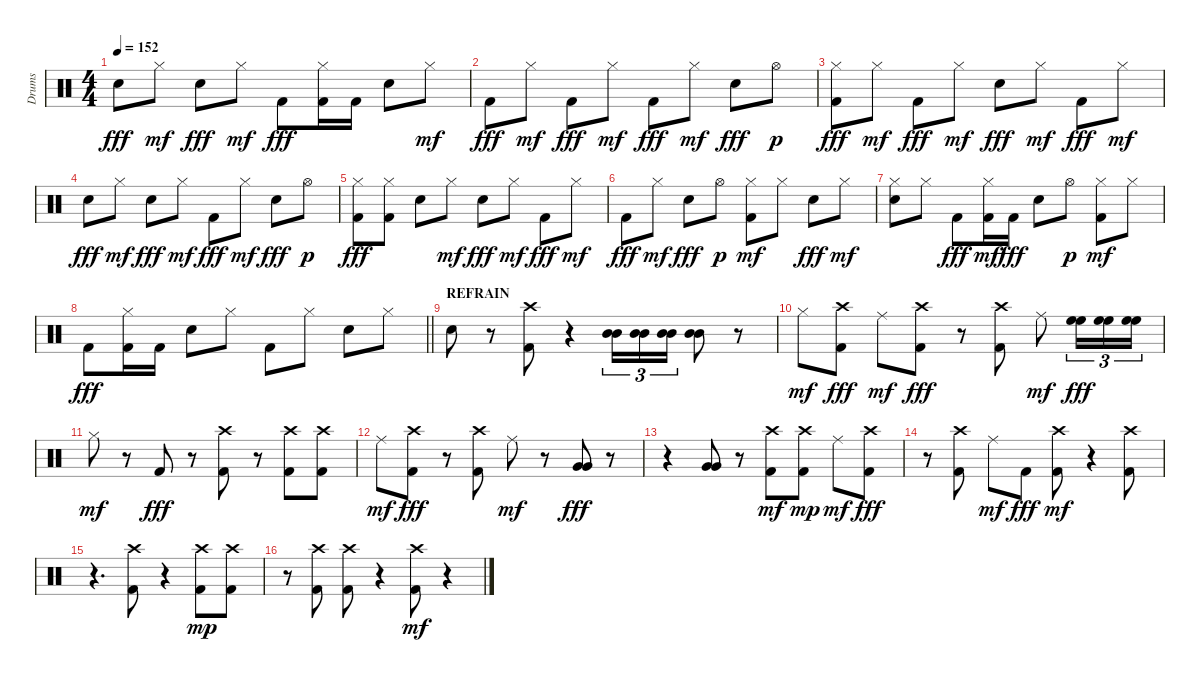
\track ("Drums" "Drums") {instrument percussion}
\staff {score}
\articulation defaults
\ts (4 4)
\tempo 152
\clef neutral
\ks c "Electric Snare (hit)".8{dy fff} "Hi-Hat (closed)".8{dy mf} "Electric Snare (hit)".8{dy fff} "Hi-Hat (closed)".8{dy mf} "Kick (hit) 2".8{dy fff}
("Hi-Hat (closed)" "Kick (hit) 2").16 "Kick (hit) 2".16 "Electric Snare (hit)".8 "Hi-Hat (closed)".8{dy mf} |
"Kick (hit) 2".8{dy fff} "Hi-Hat (closed)".8{dy mf} "Kick (hit) 2".8{dy fff} "Hi-Hat (closed)".8{dy mf} "Kick (hit) 2".8{dy fff} "Hi-Hat (closed)".8{dy mf} "Electric Snare (hit)".8{dy fff} "Hi-Hat (open)".8{dy p} |
("Hi-Hat (closed)" "Kick (hit) 2").8{dy fff} "Hi-Hat (closed)".8{dy mf} "Kick (hit) 2".8{dy fff} "Hi-Hat (closed)".8{dy mf} "Electric Snare (hit)".8{dy fff} "Hi-Hat (closed)".8{dy mf} "Kick (hit) 2".8{dy fff} "Hi-Hat (closed)".8{dy mf} |
"Electric Snare (hit)".8{dy fff} "Hi-Hat (closed)".8{dy mf} "Electric Snare (hit)".8{dy fff} "Hi-Hat (closed)".8{dy mf} "Kick (hit) 2".8{dy fff} "Hi-Hat (closed)".8{dy mf} "Electric Snare (hit)".8{dy fff} "Hi-Hat (open)".8{dy p} |
("Hi-Hat (closed)" "Kick (hit) 2").8{dy fff} ("Hi-Hat (closed)" "Kick (hit) 2").8 "Electric Snare (hit)".8 "Hi-Hat (closed)".8{dy mf} "Electric Snare (hit)".8{dy fff} "Hi-Hat (closed)".8{dy mf} "Kick (hit) 2".8{dy fff} "Hi-Hat (closed)".8{dy mf} |
"Kick (hit) 2".8{dy fff} "Hi-Hat (closed)".8{dy mf} "Electric Snare (hit)".8{dy fff} "Hi-Hat (open)".8{dy p} ("Kick (hit) 2" "Hi-Hat (closed)").8{dy mf} "Hi-Hat (closed)".8 "Electric Snare (hit)".8{dy fff} "Hi-Hat (closed)".8{dy mf} |
("Electric Snare (hit)" "Hi-Hat (closed)").8 "Hi-Hat (closed)".8 "Kick (hit) 2".8{dy fff} ("Kick (hit) 2" "Hi-Hat (closed)").16{dy mf} "Kick (hit) 2".16{dy fff} "Electric Snare (hit)".8 "Hi-Hat (open)".8{dy p} ("Kick (hit) 2" "Hi-Hat (closed)").8{dy mf} "Hi-Hat (closed)".8 |
\barLineRight lightlight "Kick (hit) 2".8{dy fff}
("Kick (hit) 2" "Hi-Hat (closed)").16 "Kick (hit) 2".16 "Electric Snare (hit)".8 "Hi-Hat (closed)".8 "Kick (hit) 2".8 "Hi-Hat (closed)".8 "Electric Snare (hit)".8 "Hi-Hat (closed)".8 |
\section ("" "REFRAIN")
"Electric Snare (hit)".8 r.8 ("Crash high (hit)" "Kick (hit) 2").8 r.4 ("Mid Tom (hit)" "Mid Tom (hit)").16{tu (3 2)} ("Mid Tom (hit)" "Mid Tom (hit)").16{tu (3 2)} ("Mid Tom (hit)" "Mid Tom (hit)").16{tu (3 2)} ("Mid Tom (hit)" "Mid Tom (hit)").8 r.8 |
"Hi-Hat (closed)".8{dy mf} ("Crash high (hit)" "Kick (hit) 2").8{dy fff} "Ride (middle)".8{dy mf} ("Crash high (hit)" "Kick (hit) 2").8{dy fff} r.8 ("Crash high (hit)" "Kick (hit) 2").8 "Ride (middle)".8{dy mf} ("High Floor Tom (hit)" "High Floor Tom (hit)").16{tu (3 2) dy fff} ("High Floor Tom (hit)" "High Floor Tom (hit)").16{tu (3 2)} ("High Floor Tom (hit)" "High Floor Tom (hit)").16{tu (3 2)} |
"Hi-Hat (closed)".8{dy mf} r.8 "Kick (hit) 2".8{dy fff} r.8 ("Crash high (hit)" "Kick (hit) 2").8 r.8 ("Crash high (hit)" "Kick (hit) 2").8 ("Crash high (hit)" "Kick (hit) 2").8 |
"Ride (middle)".8{dy mf} ("Crash high (hit)" "Kick (hit) 2").8{dy fff} r.8 ("Crash high (hit)" "Kick (hit) 2").8 "Ride (middle)".8{dy mf} r.8 ("Very Low Tom (hit)" "Very Low Tom (hit)").8{dy fff} r.8 |
r.4 ("Very Low Tom (hit)" "Very Low Tom (hit)").8 r.8 ("Kick (hit) 2" "Crash high (hit)").8{dy mf} ("Kick (hit) 2" "Crash high (hit)").8{dy mp} "Ride (middle)".8{dy mf} ("Crash high (hit)" "Kick (hit) 2").8{dy fff} |
r.8 ("Crash high (hit)" "Kick (hit) 2").8 "Ride (middle)".8{dy mf} "Kick (hit) 2".8{dy fff} ("Kick (hit) 2" "Crash high (hit)").8{dy mf} r.4 ("Kick (hit) 2" "Crash high (hit)").8 |
r.4{d} ("Kick (hit) 2" "Crash high (hit)").8 r.4 ("Kick (hit) 2" "Crash high (hit)").8{dy mp} ("Kick (hit) 2" "Crash high (hit)").8 |
r.8 ("Kick (hit) 2" "Crash high (hit)").8 ("Kick (hit) 2" "Crash high (hit)").8 r.4 ("Kick (hit) 2" "Crash high (hit)").8{dy mf} r.4
